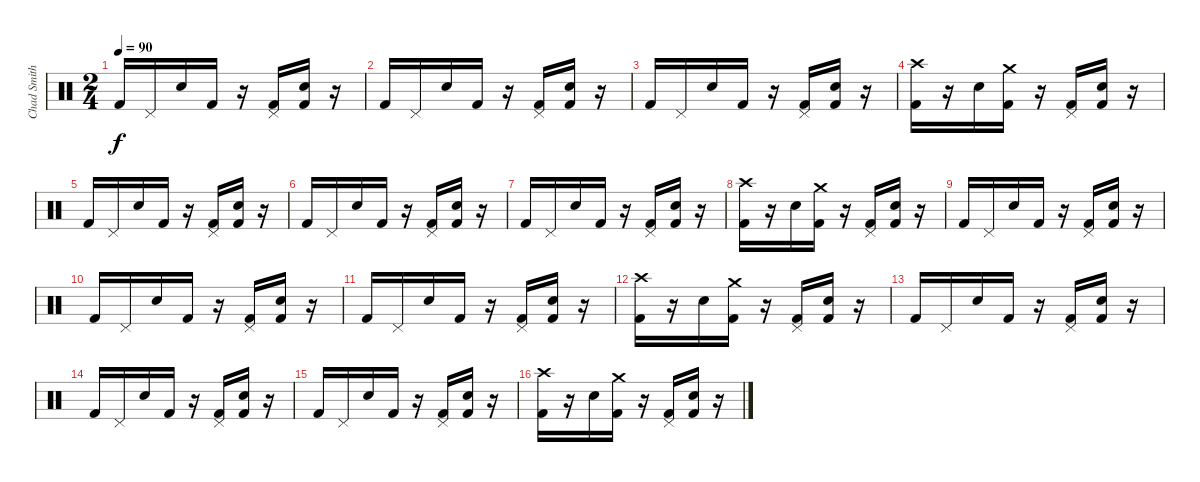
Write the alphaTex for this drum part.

\track ("Chad Smith" "Chad Smith") {instrument percussion}
\staff {score}
\articulation defaults
\ts (2 4)
\tempo 90
\clef neutral
\ks c "Kick (hit) 2".16{dy f} "Pedal Hi-Hat (hit)".16 "Electric Snare (hit)".16 "Kick (hit) 2".16
r.16 ("Pedal Hi-Hat (hit)" "Kick (hit) 2").16 ("Electric Snare (hit)" "Kick (hit) 2").16 r.16 |
"Kick (hit) 2".16 "Pedal Hi-Hat (hit)".16 "Electric Snare (hit)".16 "Kick (hit) 2".16 r.16 ("Pedal Hi-Hat (hit)" "Kick (hit) 2").16 ("Electric Snare (hit)" "Kick (hit) 2").16 r.16 |
"Kick (hit) 2".16 "Pedal Hi-Hat (hit)".16 "Electric Snare (hit)".16 "Kick (hit) 2".16 r.16 ("Pedal Hi-Hat (hit)" "Kick (hit) 2").16 ("Electric Snare (hit)" "Kick (hit) 2").16 r.16 |
("Crash high (hit)" "Kick (hit) 2").16 r.16 "Electric Snare (hit)".16 ("Crash medium (hit)" "Kick (hit) 2").16 r.16 ("Pedal Hi-Hat (hit)" "Kick (hit) 2").16 ("Electric Snare (hit)" "Kick (hit) 2").16 r.16 |
"Kick (hit) 2".16 "Pedal Hi-Hat (hit)".16 "Electric Snare (hit)".16 "Kick (hit) 2".16 r.16 ("Pedal Hi-Hat (hit)" "Kick (hit) 2").16 ("Electric Snare (hit)" "Kick (hit) 2").16 r.16 |
"Kick (hit) 2".16 "Pedal Hi-Hat (hit)".16 "Electric Snare (hit)".16 "Kick (hit) 2".16 r.16 ("Pedal Hi-Hat (hit)" "Kick (hit) 2").16 ("Electric Snare (hit)" "Kick (hit) 2").16 r.16 |
"Kick (hit) 2".16 "Pedal Hi-Hat (hit)".16 "Electric Snare (hit)".16 "Kick (hit) 2".16 r.16 ("Pedal Hi-Hat (hit)" "Kick (hit) 2").16 ("Electric Snare (hit)" "Kick (hit) 2").16 r.16 |
("Crash high (hit)" "Kick (hit) 2").16 r.16 "Electric Snare (hit)".16 ("Crash medium (hit)" "Kick (hit) 2").16 r.16 ("Pedal Hi-Hat (hit)" "Kick (hit) 2").16 ("Electric Snare (hit)" "Kick (hit) 2").16 r.16 |
"Kick (hit) 2".16 "Pedal Hi-Hat (hit)".16 "Electric Snare (hit)".16 "Kick (hit) 2".16 r.16 ("Pedal Hi-Hat (hit)" "Kick (hit) 2").16 ("Electric Snare (hit)" "Kick (hit) 2").16 r.16 |
"Kick (hit) 2".16 "Pedal Hi-Hat (hit)".16 "Electric Snare (hit)".16 "Kick (hit) 2".16 r.16 ("Pedal Hi-Hat (hit)" "Kick (hit) 2").16 ("Electric Snare (hit)" "Kick (hit) 2").16 r.16 |
"Kick (hit) 2".16 "Pedal Hi-Hat (hit)".16 "Electric Snare (hit)".16 "Kick (hit) 2".16 r.16 ("Pedal Hi-Hat (hit)" "Kick (hit) 2").16 ("Electric Snare (hit)" "Kick (hit) 2").16 r.16 |
("Crash high (hit)" "Kick (hit) 2").16 r.16 "Electric Snare (hit)".16 ("Crash medium (hit)" "Kick (hit) 2").16 r.16 ("Pedal Hi-Hat (hit)" "Kick (hit) 2").16 ("Electric Snare (hit)" "Kick (hit) 2").16 r.16 |
"Kick (hit) 2".16 "Pedal Hi-Hat (hit)".16 "Electric Snare (hit)".16 "Kick (hit) 2".16 r.16 ("Pedal Hi-Hat (hit)" "Kick (hit) 2").16 ("Electric Snare (hit)" "Kick (hit) 2").16 r.16 |
"Kick (hit) 2".16 "Pedal Hi-Hat (hit)".16 "Electric Snare (hit)".16 "Kick (hit) 2".16 r.16 ("Pedal Hi-Hat (hit)" "Kick (hit) 2").16 ("Electric Snare (hit)" "Kick (hit) 2").16 r.16 |
"Kick (hit) 2".16 "Pedal Hi-Hat (hit)".16 "Electric Snare (hit)".16 "Kick (hit) 2".16 r.16 ("Pedal Hi-Hat (hit)" "Kick (hit) 2").16 ("Electric Snare (hit)" "Kick (hit) 2").16 r.16 |
("Crash high (hit)" "Kick (hit) 2").16 r.16 "Electric Snare (hit)".16 ("Crash medium (hit)" "Kick (hit) 2").16 r.16 ("Pedal Hi-Hat (hit)" "Kick (hit) 2").16 ("Electric Snare (hit)" "Kick (hit) 2").16 r.16
